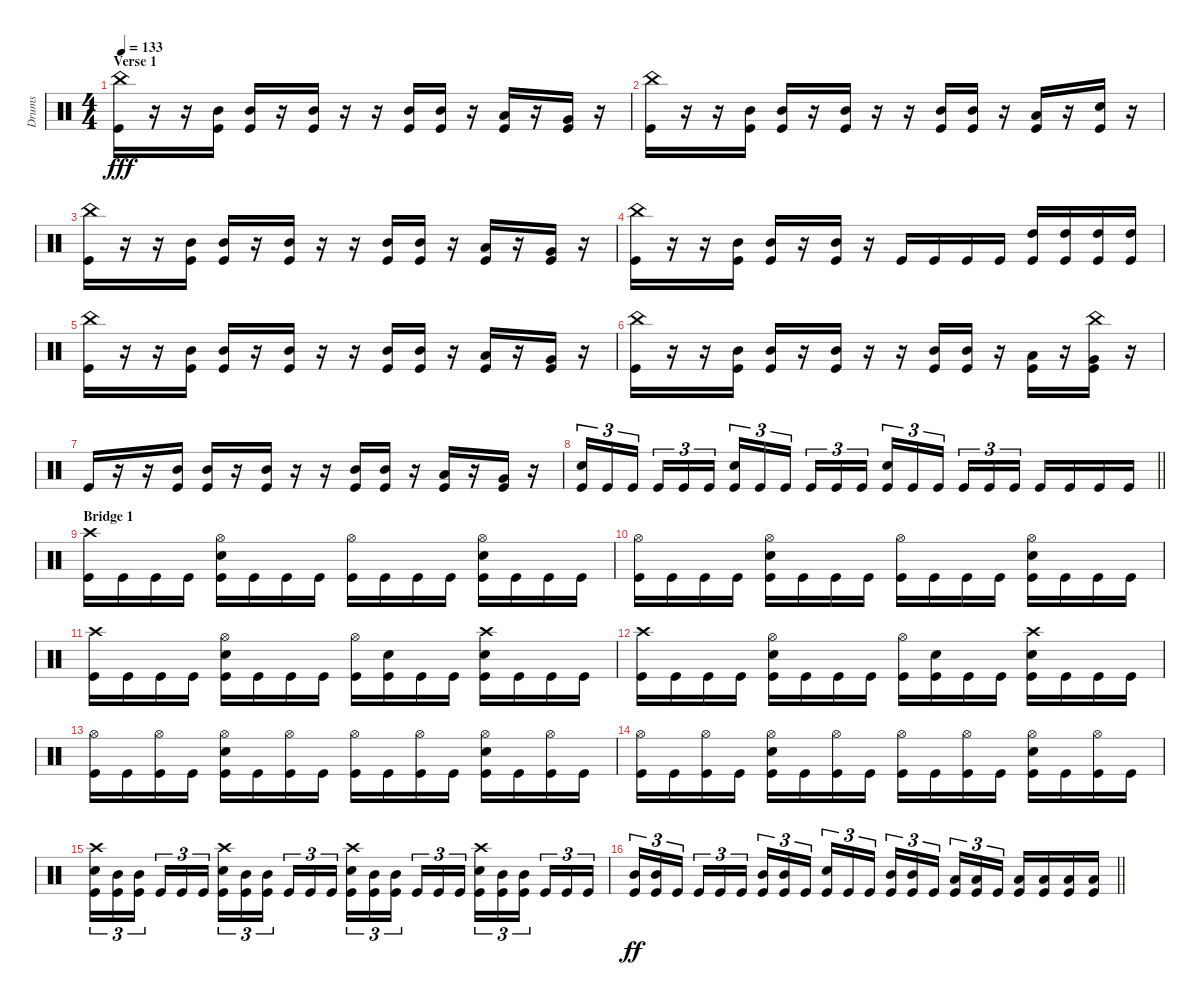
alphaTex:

\track ("Drums" "Drums") {instrument percussion}
\staff {score}
\articulation defaults
\ts (4 4)
\section ("" "Verse 1")
\tempo 133
\clef neutral
\ks c
("China (hit)" "Kick (hit)").16{dy fff} r.16 r.16 ("Mid Tom (hit)" "Kick (hit)").16 ("Mid Tom (hit)" "Kick (hit)").16 r.16 ("Mid Tom (hit)" "Kick (hit)").16 r.16 r.16 ("Mid Tom (hit)" "Kick (hit)").16 ("Mid Tom (hit)" "Kick (hit)").16 r.16 ("Low Tom (hit)" "Kick (hit)").16 r.16 ("Very Low Tom (hit)" "Kick (hit)").16 r.16 |
("China (hit)" "Kick (hit)").16 r.16 r.16 ("Mid Tom (hit)" "Kick (hit)").16 ("Mid Tom (hit)" "Kick (hit)").16 r.16 ("Mid Tom (hit)" "Kick (hit)").16 r.16 r.16 ("Mid Tom (hit)" "Kick (hit)").16 ("Mid Tom (hit)" "Kick (hit)").16 r.16 ("Low Tom (hit)" "Kick (hit)").16 r.16 ("Snare (hit) 2" "Kick (hit)").16 r.16 |
("China (hit)" "Kick (hit)").16 r.16 r.16 ("Mid Tom (hit)" "Kick (hit)").16 ("Mid Tom (hit)" "Kick (hit)").16 r.16 ("Mid Tom (hit)" "Kick (hit)").16 r.16 r.16 ("Mid Tom (hit)" "Kick (hit)").16 ("Mid Tom (hit)" "Kick (hit)").16 r.16 ("Low Tom (hit)" "Kick (hit)").16 r.16 ("Very Low Tom (hit)" "Kick (hit)").16 r.16 |
("China (hit)" "Kick (hit)").16 r.16 r.16 ("Mid Tom (hit)" "Kick (hit)").16 ("Mid Tom (hit)" "Kick (hit)").16 r.16 ("Mid Tom (hit)" "Kick (hit)").16 r.16 "Kick (hit)".16 "Kick (hit)".16 "Kick (hit)".16 "Kick (hit)".16 ("High Tom (hit)" "Kick (hit)").16 ("High Tom (hit)" "Kick (hit)").16 ("High Tom (hit)" "Kick (hit)").16 ("High Tom (hit)" "Kick (hit)").16 |
("China (hit)" "Kick (hit)").16 r.16 r.16 ("Mid Tom (hit)" "Kick (hit)").16 ("Mid Tom (hit)" "Kick (hit)").16 r.16 ("Mid Tom (hit)" "Kick (hit)").16 r.16 r.16 ("Mid Tom (hit)" "Kick (hit)").16 ("Mid Tom (hit)" "Kick (hit)").16 r.16 ("Low Tom (hit)" "Kick (hit)").16 r.16 ("Very Low Tom (hit)" "Kick (hit)").16 r.16 |
("China (hit)" "Kick (hit)").16 r.16 r.16 ("Mid Tom (hit)" "Kick (hit)").16 ("Mid Tom (hit)" "Kick (hit)").16 r.16 ("Mid Tom (hit)" "Kick (hit)").16 r.16 r.16 ("Mid Tom (hit)" "Kick (hit)").16 ("Mid Tom (hit)" "Kick (hit)").16 r.16 ("Low Tom (hit)" "Kick (hit)").16 r.16 ("China (hit)" "Very Low Tom (hit)" "Kick (hit)").16 r.16 |
"Kick (hit)".16 r.16 r.16 ("Mid Tom (hit)" "Kick (hit)").16 ("Mid Tom (hit)" "Kick (hit)").16 r.16 ("Mid Tom (hit)" "Kick (hit)").16 r.16 r.16 ("Mid Tom (hit)" "Kick (hit)").16 ("Mid Tom (hit)" "Kick (hit)").16 r.16 ("Low Tom (hit)" "Kick (hit)").16 r.16 ("Very Low Tom (hit)" "Kick (hit)").16 r.16 |
\barLineRight lightlight
("Snare (hit) 2" "Kick (hit)").16{tu (3 2)} "Kick (hit)".16{tu (3 2)} "Kick (hit)".16{tu (3 2) beam splitsecondary} "Kick (hit)".16{tu (3 2)} "Kick (hit)".16{tu (3 2)} "Kick (hit)".16{tu (3 2)} ("Snare (hit) 2" "Kick (hit)").16{tu (3 2)} "Kick (hit)".16{tu (3 2)} "Kick (hit)".16{tu (3 2) beam splitsecondary} "Kick (hit)".16{tu (3 2)} "Kick (hit)".16{tu (3 2)} "Kick (hit)".16{tu (3 2)} ("Snare (hit) 2" "Kick (hit)").16{tu (3 2)} "Kick (hit)".16{tu (3 2)} "Kick (hit)".16{tu (3 2) beam splitsecondary} "Kick (hit)".16{tu (3 2)} "Kick (hit)".16{tu (3 2)} "Kick (hit)".16{tu (3 2)} "Kick (hit)".16 "Kick (hit)".16 "Kick (hit)".16 "Kick (hit)".16 |
\section ("" "Bridge 1")
("Crash high (hit)" "Kick (hit)").16 "Kick (hit)".16 "Kick (hit)".16 "Kick (hit)".16 ("Hi-Hat (open)" "Snare (hit) 2" "Kick (hit)").16 "Kick (hit)".16 "Kick (hit)".16 "Kick (hit)".16 ("Hi-Hat (open)" "Kick (hit)").16 "Kick (hit)".16 "Kick (hit)".16 "Kick (hit)".16 ("Hi-Hat (open)" "Snare (hit) 2" "Kick (hit)").16 "Kick (hit)".16 "Kick (hit)".16 "Kick (hit)".16 |
("Hi-Hat (open)" "Kick (hit)").16 "Kick (hit)".16 "Kick (hit)".16 "Kick (hit)".16 ("Hi-Hat (open)" "Snare (hit) 2" "Kick (hit)").16 "Kick (hit)".16 "Kick (hit)".16 "Kick (hit)".16 ("Hi-Hat (open)" "Kick (hit)").16 "Kick (hit)".16 "Kick (hit)".16 "Kick (hit)".16 ("Hi-Hat (open)" "Snare (hit) 2" "Kick (hit)").16 "Kick (hit)".16 "Kick (hit)".16 "Kick (hit)".16 |
("Crash high (hit)" "Kick (hit)").16 "Kick (hit)".16 "Kick (hit)".16 "Kick (hit)".16 ("Hi-Hat (open)" "Snare (hit) 2" "Kick (hit)").16 "Kick (hit)".16 "Kick (hit)".16 "Kick (hit)".16 ("Hi-Hat (open)" "Kick (hit)").16 ("Snare (hit) 2" "Kick (hit)").16 "Kick (hit)".16 "Kick (hit)".16 ("Crash high (hit)" "Snare (hit) 2" "Kick (hit)").16 "Kick (hit)".16 "Kick (hit)".16 "Kick (hit)".16 |
("Crash high (hit)" "Kick (hit)").16 "Kick (hit)".16 "Kick (hit)".16 "Kick (hit)".16 ("Hi-Hat (open)" "Snare (hit) 2" "Kick (hit)").16 "Kick (hit)".16 "Kick (hit)".16 "Kick (hit)".16 ("Hi-Hat (open)" "Kick (hit)").16 ("Snare (hit) 2" "Kick (hit)").16 "Kick (hit)".16 "Kick (hit)".16 ("Crash high (hit)" "Snare (hit) 2" "Kick (hit)").16 "Kick (hit)".16 "Kick (hit)".16 "Kick (hit)".16 |
("Hi-Hat (open)" "Kick (hit)").16 "Kick (hit)".16 ("Hi-Hat (open)" "Kick (hit)").16 "Kick (hit)".16 ("Hi-Hat (open)" "Snare (hit) 2" "Kick (hit)").16 "Kick (hit)".16 ("Hi-Hat (open)" "Kick (hit)").16 "Kick (hit)".16 ("Hi-Hat (open)" "Kick (hit)").16 "Kick (hit)".16 ("Hi-Hat (open)" "Kick (hit)").16 "Kick (hit)".16 ("Hi-Hat (open)" "Snare (hit) 2" "Kick (hit)").16 "Kick (hit)".16 ("Hi-Hat (open)" "Kick (hit)").16 "Kick (hit)".16 |
("Hi-Hat (open)" "Kick (hit)").16 "Kick (hit)".16 ("Hi-Hat (open)" "Kick (hit)").16 "Kick (hit)".16 ("Hi-Hat (open)" "Snare (hit) 2" "Kick (hit)").16 "Kick (hit)".16 ("Hi-Hat (open)" "Kick (hit)").16 "Kick (hit)".16 ("Hi-Hat (open)" "Kick (hit)").16 "Kick (hit)".16 ("Hi-Hat (open)" "Kick (hit)").16 "Kick (hit)".16 ("Hi-Hat (open)" "Snare (hit) 2" "Kick (hit)").16 "Kick (hit)".16 ("Hi-Hat (open)" "Kick (hit)").16 "Kick (hit)".16 |
("Crash high (hit)" "Snare (hit) 2" "Kick (hit)").16{tu (3 2)} ("Mid Tom (hit)" "Kick (hit)").16{tu (3 2)} ("Mid Tom (hit)" "Kick (hit)").16{tu (3 2) beam splitsecondary} "Kick (hit)".16{tu (3 2)} "Kick (hit)".16{tu (3 2)} "Kick (hit)".16{tu (3 2)} ("Crash high (hit)" "Snare (hit) 2" "Kick (hit)").16{tu (3 2)} ("Mid Tom (hit)" "Kick (hit)").16{tu (3 2)} ("Mid Tom (hit)" "Kick (hit)").16{tu (3 2) beam splitsecondary} "Kick (hit)".16{tu (3 2)} "Kick (hit)".16{tu (3 2)} "Kick (hit)".16{tu (3 2)} ("Crash high (hit)" "Snare (hit) 2" "Kick (hit)").16{tu (3 2)} ("Mid Tom (hit)" "Kick (hit)").16{tu (3 2)} ("Mid Tom (hit)" "Kick (hit)").16{tu (3 2) beam splitsecondary} "Kick (hit)".16{tu (3 2)} "Kick (hit)".16{tu (3 2)} "Kick (hit)".16{tu (3 2)} ("Crash high (hit)" "Snare (hit) 2" "Kick (hit)").16{tu (3 2)} ("Mid Tom (hit)" "Kick (hit)").16{tu (3 2)} ("Mid Tom (hit)" "Kick (hit)").16{tu (3 2) beam splitsecondary} "Kick (hit)".16{tu (3 2)} "Kick (hit)".16{tu (3 2)} "Kick (hit)".16{tu (3 2)} |
\barLineRight lightlight
("Mid Tom (hit)" "Kick (hit)").16{tu (3 2) dy ff} ("Mid Tom (hit)" "Kick (hit)").16{tu (3 2)} "Kick (hit)".16{tu (3 2) beam splitsecondary} "Kick (hit)".16{tu (3 2)} "Kick (hit)".16{tu (3 2)} "Kick (hit)".16{tu (3 2)} ("Mid Tom (hit)" "Kick (hit)").16{tu (3 2)} ("Mid Tom (hit)" "Kick (hit)").16{tu (3 2)} "Kick (hit)".16{tu (3 2) beam splitsecondary} ("Snare (hit) 2" "Kick (hit)").16{tu (3 2)} "Kick (hit)".16{tu (3 2)} "Kick (hit)".16{tu (3 2)} ("Mid Tom (hit)" "Kick (hit)").16{tu (3 2)} ("Mid Tom (hit)" "Kick (hit)").16{tu (3 2)} "Kick (hit)".16{tu (3 2) beam splitsecondary} ("Low Tom (hit)" "Kick (hit)").16{tu (3 2)} ("Low Tom (hit)" "Kick (hit)").16{tu (3 2)} "Kick (hit)".16{tu (3 2)} ("Low Tom (hit)" "Kick (hit)").16 ("Low Tom (hit)" "Kick (hit)").16 ("Low Tom (hit)" "Kick (hit)").16 ("Low Tom (hit)" "Kick (hit)").16
